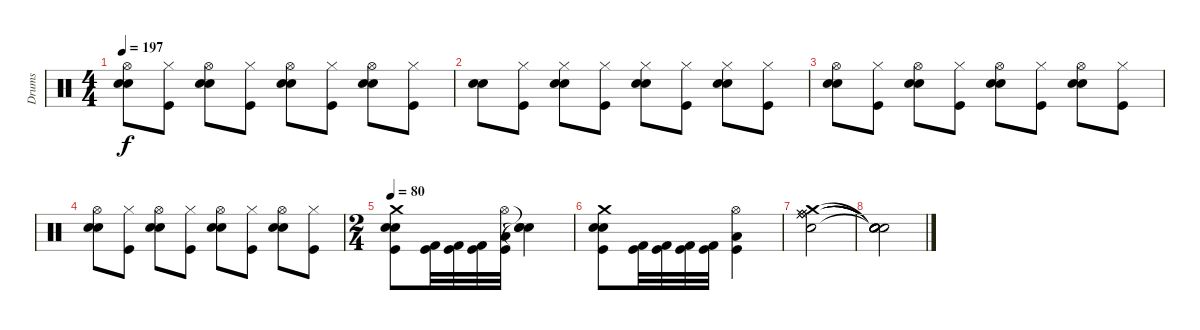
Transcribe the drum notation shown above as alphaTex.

\track ("Drums" "Drums") {instrument percussion}
\staff {score}
\articulation defaults
\ts (4 4)
\tempo 197
\clef neutral
\ks c
("Electric Snare (hit)" "Hi-Hat (open)" "Snare (hit) 2").8{dy f} ("Hi-Hat (closed)" "Kick (hit)").8 ("Electric Snare (hit)" "Hi-Hat (open)" "Snare (hit) 2").8 ("Hi-Hat (closed)" "Kick (hit)").8 ("Electric Snare (hit)" "Hi-Hat (open)" "Snare (hit) 2").8 ("Hi-Hat (closed)" "Kick (hit)").8 ("Electric Snare (hit)" "Hi-Hat (open)" "Snare (hit) 2").8 ("Hi-Hat (closed)" "Kick (hit)").8 |
("Electric Snare (hit)" "Snare (hit) 2").8 ("Hi-Hat (closed)" "Kick (hit)").8 ("Electric Snare (hit)" "Hi-Hat (closed)" "Snare (hit) 2").8 ("Hi-Hat (closed)" "Kick (hit)").8 ("Electric Snare (hit)" "Hi-Hat (closed)" "Snare (hit) 2").8 ("Hi-Hat (closed)" "Kick (hit)").8 ("Electric Snare (hit)" "Hi-Hat (closed)" "Snare (hit) 2").8 ("Hi-Hat (closed)" "Kick (hit)").8 |
("Electric Snare (hit)" "Hi-Hat (open)" "Snare (hit) 2").8 ("Hi-Hat (closed)" "Kick (hit)").8 ("Electric Snare (hit)" "Hi-Hat (open)" "Snare (hit) 2").8 ("Hi-Hat (closed)" "Kick (hit)").8 ("Electric Snare (hit)" "Hi-Hat (open)" "Snare (hit) 2").8 ("Hi-Hat (closed)" "Kick (hit)").8 ("Electric Snare (hit)" "Hi-Hat (open)" "Snare (hit) 2").8 ("Hi-Hat (closed)" "Kick (hit)").8 |
("Electric Snare (hit)" "Hi-Hat (open)" "Snare (hit) 2").8 ("Hi-Hat (closed)" "Kick (hit)").8 ("Electric Snare (hit)" "Hi-Hat (open)" "Snare (hit) 2").8 ("Hi-Hat (closed)" "Kick (hit)").8 ("Electric Snare (hit)" "Hi-Hat (open)" "Snare (hit) 2").8 ("Hi-Hat (closed)" "Kick (hit)").8 ("Electric Snare (hit)" "Hi-Hat (open)" "Snare (hit) 2").8 ("Hi-Hat (closed)" "Kick (hit)").8 |
\ts (2 4)
\tempo 80
("Crash medium (hit)" "Snare (hit) 2" "Kick (hit)" "Electric Snare (hit)").8 ("Kick (hit)" "Kick (hit) 2").32 ("Kick (hit)" "Kick (hit) 2").32 ("Kick (hit)" "Kick (hit) 2").32 ("Hi-Hat (open)" "Kick (hit)" "Low Floor Tom (hit)").32 ("Snare (hit)"{t} "Snare (hit)"{t} "Snare (hit)"{t}).4 |
("Crash medium (hit)" "Snare (hit) 2" "Kick (hit)" "Electric Snare (hit)").8 ("Kick (hit)" "Kick (hit) 2").32 ("Kick (hit)" "Kick (hit) 2").32 ("Kick (hit)" "Kick (hit) 2").32 ("Kick (hit)" "Kick (hit) 2").32 ("Hi-Hat (open)" "Kick (hit)" "Low Floor Tom (hit)").4 |
("Crash medium (hit)" "Ride (middle)" "Ride (bell)" "Ride (middle)" "Ride (bell)" "Electric Snare (hit)").2 |
("Snare (hit)"{t} "Snare (hit)"{t} "Snare (hit)"{t} "Snare (hit)"{t} "Snare (hit)"{t} "Snare (hit)"{t}).2
